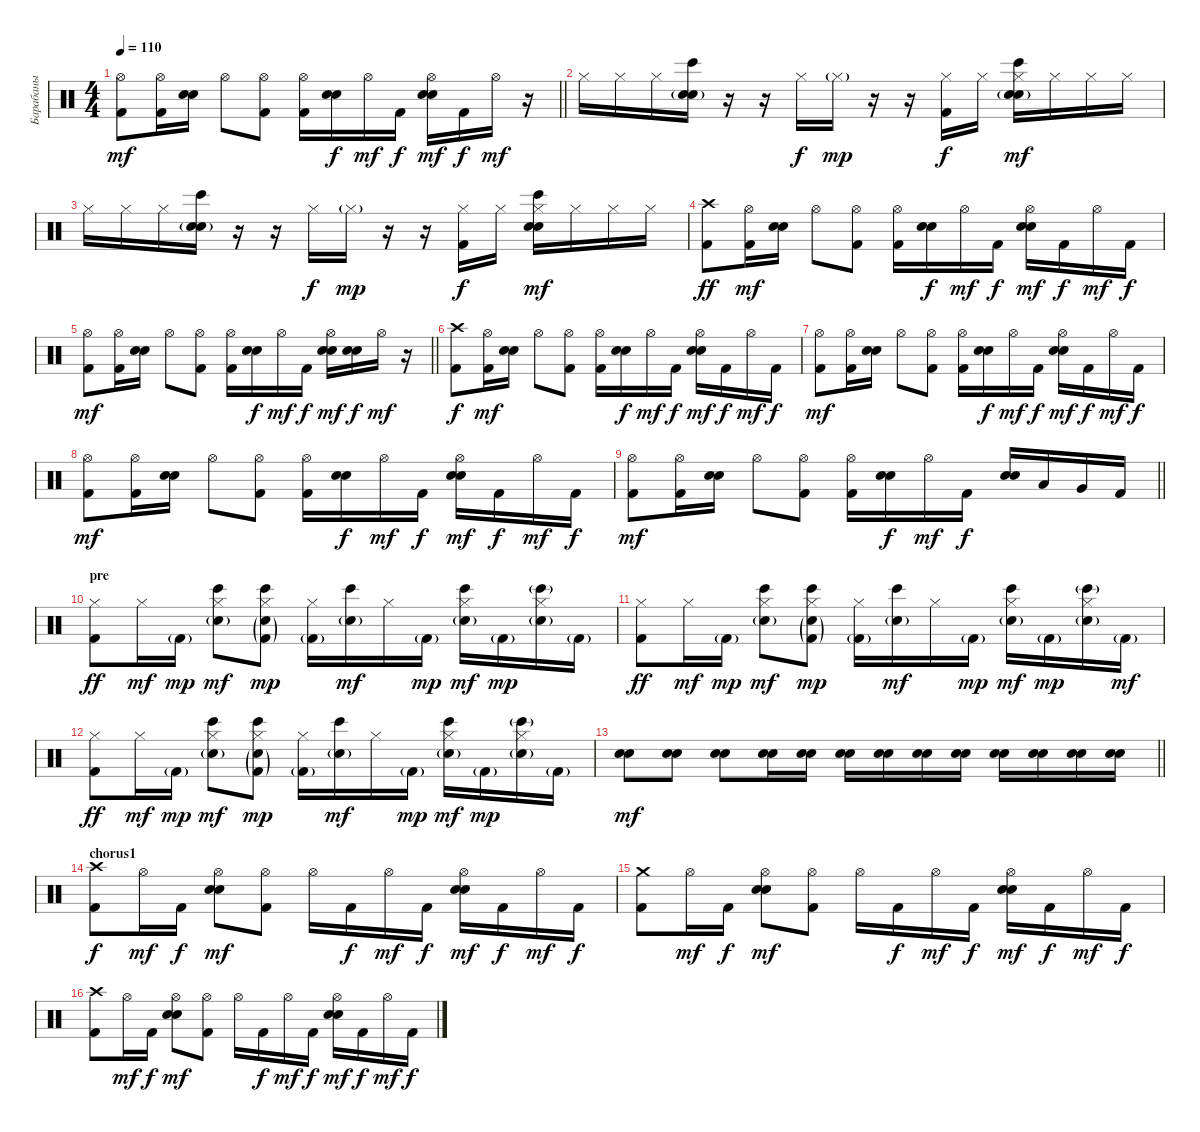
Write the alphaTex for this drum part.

\track ("Барабаны" "Барабаны") {instrument percussion}
\staff {score}
\articulation defaults
\ts (4 4)
\tempo 110
\clef neutral
\barLineRight lightlight
\ks c
("Hi-Hat (open)" "Kick (hit) 2").8{dy mf} ("Hi-Hat (open)" "Kick (hit) 2").16 ("Electric Snare (hit)" "Snare (hit) 2").16 "Hi-Hat (open)".8 ("Hi-Hat (open)" "Kick (hit) 2").8 ("Hi-Hat (open)" "Kick (hit) 2").16 ("Electric Snare (hit)" "Snare (hit) 2").16{dy f} "Hi-Hat (open)".16{dy mf} "Kick (hit) 2".16{dy f} ("Hi-Hat (open)" "Electric Snare (hit)" "Snare (hit) 2").16{dy mf} "Kick (hit) 2".16{dy f} "Hi-Hat (open)".16{dy mf} r.16 |
"Hi-Hat (closed)".16 "Hi-Hat (closed)".16 "Hi-Hat (closed)".16 ("Bongo High (hit)" "Electric Snare (hit)"{g} "Snare (hit) 2").16 r.16 r.16 "Hi-Hat (closed)".16{dy f} "Hi-Hat (closed)"{g}.16{dy mp} r.16 r.16 ("Hi-Hat (closed)" "Kick (hit) 2").16{dy f} "Hi-Hat (closed)".16 ("Hi-Hat (closed)" "Bongo High (hit)" "Electric Snare (hit)"{g} "Snare (hit) 2").16{dy mf} "Hi-Hat (closed)".16 "Hi-Hat (closed)".16 "Hi-Hat (closed)".16 |
"Hi-Hat (closed)".16 "Hi-Hat (closed)".16 "Hi-Hat (closed)".16 ("Bongo High (hit)" "Electric Snare (hit)"{g} "Snare (hit) 2").16 r.16 r.16 "Hi-Hat (closed)".16{dy f} "Hi-Hat (closed)"{g}.16{dy mp} r.16 r.16 ("Hi-Hat (closed)" "Kick (hit) 2").16{dy f} "Hi-Hat (closed)".16 ("Hi-Hat (closed)" "Bongo High (hit)" "Electric Snare (hit)" "Snare (hit) 2").16{dy mf} "Hi-Hat (closed)".16 "Hi-Hat (closed)".16 "Hi-Hat (closed)".16 |
("Crash high (hit)" "Kick (hit) 2").8{dy ff} ("Hi-Hat (open)" "Kick (hit) 2").16{dy mf} ("Electric Snare (hit)" "Snare (hit) 2").16 "Hi-Hat (open)".8 ("Hi-Hat (open)" "Kick (hit) 2").8 ("Hi-Hat (open)" "Kick (hit) 2").16 ("Electric Snare (hit)" "Snare (hit) 2").16{dy f} "Hi-Hat (open)".16{dy mf} "Kick (hit) 2".16{dy f} ("Hi-Hat (open)" "Electric Snare (hit)" "Snare (hit) 2").16{dy mf} "Kick (hit) 2".16{dy f} "Hi-Hat (open)".16{dy mf} "Kick (hit) 2".16{dy f} |
\barLineRight lightlight
("Hi-Hat (open)" "Kick (hit) 2").8{dy mf} ("Hi-Hat (open)" "Kick (hit) 2").16 ("Electric Snare (hit)" "Snare (hit) 2").16 "Hi-Hat (open)".8 ("Hi-Hat (open)" "Kick (hit) 2").8 ("Hi-Hat (open)" "Kick (hit) 2").16 ("Electric Snare (hit)" "Snare (hit) 2").16{dy f} "Hi-Hat (open)".16{dy mf} "Kick (hit) 2".16{dy f} ("Hi-Hat (open)" "Electric Snare (hit)" "Snare (hit) 2").16{dy mf} ("Electric Snare (hit)" "Snare (hit) 2").16{dy f} "Hi-Hat (open)".16{dy mf} r.16 |
("Crash high (hit)" "Kick (hit) 2").8{dy f} ("Hi-Hat (open)" "Kick (hit) 2").16{dy mf} ("Electric Snare (hit)" "Snare (hit) 2").16 "Hi-Hat (open)".8 ("Hi-Hat (open)" "Kick (hit) 2").8 ("Hi-Hat (open)" "Kick (hit) 2").16 ("Electric Snare (hit)" "Snare (hit) 2").16{dy f} "Hi-Hat (open)".16{dy mf} "Kick (hit) 2".16{dy f} ("Hi-Hat (open)" "Electric Snare (hit)" "Snare (hit) 2").16{dy mf} "Kick (hit) 2".16{dy f} "Hi-Hat (open)".16{dy mf} "Kick (hit) 2".16{dy f} |
("Hi-Hat (open)" "Kick (hit) 2").8{dy mf} ("Hi-Hat (open)" "Kick (hit) 2").16 ("Electric Snare (hit)" "Snare (hit) 2").16 "Hi-Hat (open)".8 ("Hi-Hat (open)" "Kick (hit) 2").8 ("Hi-Hat (open)" "Kick (hit) 2").16 ("Electric Snare (hit)" "Snare (hit) 2").16{dy f} "Hi-Hat (open)".16{dy mf} "Kick (hit) 2".16{dy f} ("Hi-Hat (open)" "Electric Snare (hit)" "Snare (hit) 2").16{dy mf} "Kick (hit) 2".16{dy f} "Hi-Hat (open)".16{dy mf} "Kick (hit) 2".16{dy f} |
("Hi-Hat (open)" "Kick (hit) 2").8{dy mf} ("Hi-Hat (open)" "Kick (hit) 2").16 ("Electric Snare (hit)" "Snare (hit) 2").16 "Hi-Hat (open)".8 ("Hi-Hat (open)" "Kick (hit) 2").8 ("Hi-Hat (open)" "Kick (hit) 2").16 ("Electric Snare (hit)" "Snare (hit) 2").16{dy f} "Hi-Hat (open)".16{dy mf} "Kick (hit) 2".16{dy f} ("Hi-Hat (open)" "Electric Snare (hit)" "Snare (hit) 2").16{dy mf} "Kick (hit) 2".16{dy f} "Hi-Hat (open)".16{dy mf} "Kick (hit) 2".16{dy f} |
\barLineRight lightlight
("Hi-Hat (open)" "Kick (hit) 2").8{dy mf} ("Hi-Hat (open)" "Kick (hit) 2").16 ("Electric Snare (hit)" "Snare (hit) 2").16 "Hi-Hat (open)".8 ("Hi-Hat (open)" "Kick (hit) 2").8 ("Hi-Hat (open)" "Kick (hit) 2").16 ("Electric Snare (hit)" "Snare (hit) 2").16{dy f} "Hi-Hat (open)".16{dy mf} "Kick (hit) 2".16{dy f} ("Electric Snare (hit)" "Snare (hit) 2").16 "Low Tom (hit)".16 "Very Low Tom (hit)".16 "Kick (hit) 2".16 |
\section ("" "pre")
("Hi-Hat (closed)" "Kick (hit) 2").8{dy ff} "Hi-Hat (closed)".16{dy mf} "Kick (hit) 2"{g}.16{dy mp} ("Hi-Hat (closed)" "Snare (hit) 2"{g} "Bongo High (hit)").8{dy mf} ("Hi-Hat (closed)" "Snare (hit) 2"{g} "Bongo High (hit)" "Kick (hit) 2"{g}).8{dy mp} ("Hi-Hat (closed)" "Kick (hit) 2"{g}).16 ("Snare (hit) 2"{g} "Bongo High (hit)").16{dy mf} "Hi-Hat (closed)".16 "Kick (hit) 2"{g}.16{dy mp} ("Hi-Hat (closed)" "Snare (hit) 2"{g} "Bongo High (hit)").16{dy mf} "Kick (hit) 2"{g}.16{dy mp} ("Hi-Hat (closed)" "Snare (hit) 2"{g} "Bongo High (hit)"{g}).16 "Kick (hit) 2"{g}.16 |
("Hi-Hat (closed)" "Kick (hit) 2").8{dy ff} "Hi-Hat (closed)".16{dy mf} "Kick (hit) 2"{g}.16{dy mp} ("Hi-Hat (closed)" "Snare (hit) 2"{g} "Bongo High (hit)").8{dy mf} ("Hi-Hat (closed)" "Snare (hit) 2"{g} "Bongo High (hit)" "Kick (hit) 2"{g}).8{dy mp} ("Hi-Hat (closed)" "Kick (hit) 2"{g}).16 ("Snare (hit) 2"{g} "Bongo High (hit)").16{dy mf} "Hi-Hat (closed)".16 "Kick (hit) 2"{g}.16{dy mp} ("Hi-Hat (closed)" "Snare (hit) 2"{g} "Bongo High (hit)").16{dy mf} "Kick (hit) 2"{g}.16{dy mp} ("Hi-Hat (closed)" "Snare (hit) 2"{g} "Bongo High (hit)"{g}).16 "Kick (hit) 2"{g}.16{dy mf} |
("Hi-Hat (closed)" "Kick (hit) 2").8{dy ff} "Hi-Hat (closed)".16{dy mf} "Kick (hit) 2"{g}.16{dy mp} ("Hi-Hat (closed)" "Snare (hit) 2"{g} "Bongo High (hit)").8{dy mf} ("Hi-Hat (closed)" "Snare (hit) 2"{g} "Bongo High (hit)" "Kick (hit) 2"{g}).8{dy mp} ("Hi-Hat (closed)" "Kick (hit) 2"{g}).16 ("Snare (hit) 2"{g} "Bongo High (hit)").16{dy mf} "Hi-Hat (closed)".16 "Kick (hit) 2"{g}.16{dy mp} ("Hi-Hat (closed)" "Snare (hit) 2"{g} "Bongo High (hit)").16{dy mf} "Kick (hit) 2"{g}.16{dy mp} ("Hi-Hat (closed)" "Snare (hit) 2"{g} "Bongo High (hit)"{g}).16 "Kick (hit) 2"{g}.16 |
\barLineRight lightlight
("Electric Snare (hit)" "Snare (hit) 2").8{dy mf} ("Electric Snare (hit)" "Snare (hit) 2").8 ("Electric Snare (hit)" "Snare (hit) 2").8 ("Electric Snare (hit)" "Snare (hit) 2").16 ("Electric Snare (hit)" "Snare (hit) 2").16 ("Electric Snare (hit)" "Snare (hit) 2").16 ("Electric Snare (hit)" "Snare (hit) 2").16 ("Electric Snare (hit)" "Snare (hit) 2").16 ("Electric Snare (hit)" "Snare (hit) 2").16 ("Electric Snare (hit)" "Snare (hit) 2").16 ("Electric Snare (hit)" "Snare (hit) 2").16 ("Electric Snare (hit)" "Snare (hit) 2").16 ("Electric Snare (hit)" "Snare (hit) 2").16 |
\section ("" "chorus1")
("Crash high (hit)" "Kick (hit) 2").8{dy f} "Hi-Hat (open)".16{dy mf} "Kick (hit) 2".16{dy f} ("Hi-Hat (open)" "Electric Snare (hit)" "Snare (hit) 2").8{dy mf} ("Hi-Hat (open)" "Kick (hit) 2").8 "Hi-Hat (open)".16 "Kick (hit) 2".16{dy f} "Hi-Hat (open)".16{dy mf} "Kick (hit) 2".16{dy f} ("Hi-Hat (open)" "Electric Snare (hit)" "Snare (hit) 2").16{dy mf} "Kick (hit) 2".16{dy f} "Hi-Hat (open)".16{dy mf} "Kick (hit) 2".16{dy f} |
("Crash medium (hit)" "Kick (hit) 2").8 "Hi-Hat (open)".16{dy mf} "Kick (hit) 2".16{dy f} ("Hi-Hat (open)" "Electric Snare (hit)" "Snare (hit) 2").8{dy mf} ("Hi-Hat (open)" "Kick (hit) 2").8 "Hi-Hat (open)".16 "Kick (hit) 2".16{dy f} "Hi-Hat (open)".16{dy mf} "Kick (hit) 2".16{dy f} ("Hi-Hat (open)" "Electric Snare (hit)" "Snare (hit) 2").16{dy mf} "Kick (hit) 2".16{dy f} "Hi-Hat (open)".16{dy mf} "Kick (hit) 2".16{dy f} |
("Crash high (hit)" "Kick (hit) 2").8 "Hi-Hat (open)".16{dy mf} "Kick (hit) 2".16{dy f} ("Hi-Hat (open)" "Electric Snare (hit)" "Snare (hit) 2").8{dy mf} ("Hi-Hat (open)" "Kick (hit) 2").8 "Hi-Hat (open)".16 "Kick (hit) 2".16{dy f} "Hi-Hat (open)".16{dy mf} "Kick (hit) 2".16{dy f} ("Hi-Hat (open)" "Electric Snare (hit)" "Snare (hit) 2").16{dy mf} "Kick (hit) 2".16{dy f} "Hi-Hat (open)".16{dy mf} "Kick (hit) 2".16{dy f}
